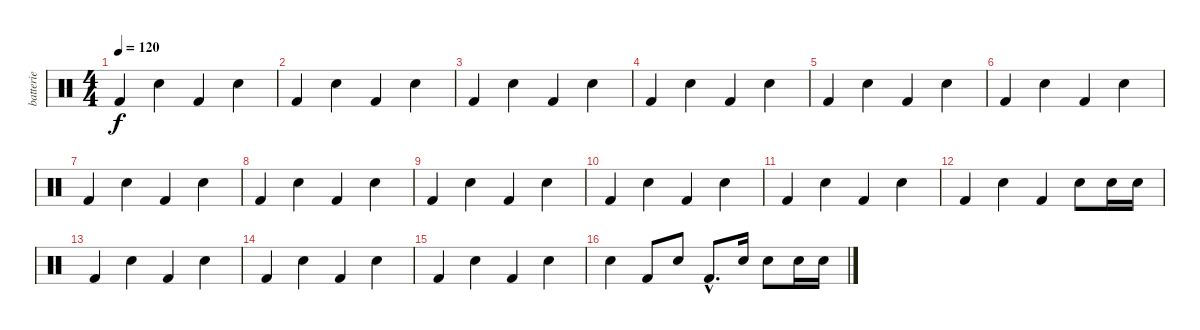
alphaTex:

\track ("batterie" "batterie") {instrument percussion}
\staff {score}
\articulation defaults
\ts (4 4)
\tempo 120
\clef neutral
\ks c "Kick (hit) 2".4{dy f} "Electric Snare (hit)".4 "Kick (hit) 2".4 "Electric Snare (hit)".4
|
"Kick (hit) 2".4 "Electric Snare (hit)".4 "Kick (hit) 2".4 "Electric Snare (hit)".4 |
"Kick (hit) 2".4 "Electric Snare (hit)".4 "Kick (hit) 2".4 "Electric Snare (hit)".4 |
"Kick (hit) 2".4 "Electric Snare (hit)".4 "Kick (hit) 2".4 "Electric Snare (hit)".4 |
"Kick (hit) 2".4 "Electric Snare (hit)".4 "Kick (hit) 2".4 "Electric Snare (hit)".4 |
"Kick (hit) 2".4 "Electric Snare (hit)".4 "Kick (hit) 2".4 "Electric Snare (hit)".4 |
"Kick (hit) 2".4 "Electric Snare (hit)".4 "Kick (hit) 2".4 "Electric Snare (hit)".4 |
"Kick (hit) 2".4 "Electric Snare (hit)".4 "Kick (hit) 2".4 "Electric Snare (hit)".4 |
"Kick (hit) 2".4 "Electric Snare (hit)".4 "Kick (hit) 2".4 "Electric Snare (hit)".4 |
"Kick (hit) 2".4 "Electric Snare (hit)".4 "Kick (hit) 2".4 "Electric Snare (hit)".4 |
"Kick (hit) 2".4 "Electric Snare (hit)".4 "Kick (hit) 2".4 "Electric Snare (hit)".4 |
"Kick (hit) 2".4 "Electric Snare (hit)".4 "Kick (hit) 2".4 "Electric Snare (hit)".8 "Electric Snare (hit)".16 "Electric Snare (hit)".16 |
"Kick (hit) 2".4 "Electric Snare (hit)".4 "Kick (hit) 2".4 "Electric Snare (hit)".4 |
"Kick (hit) 2".4 "Electric Snare (hit)".4 "Kick (hit) 2".4 "Electric Snare (hit)".4 |
"Kick (hit) 2".4 "Electric Snare (hit)".4 "Kick (hit) 2".4 "Electric Snare (hit)".4 |
"Electric Snare (hit)".4 "Kick (hit) 2".8 "Electric Snare (hit)".8 "Kick (hit) 2"{hac}.8{d} "Electric Snare (hit)".16 "Electric Snare (hit)".8 "Electric Snare (hit)".16 "Electric Snare (hit)".16
